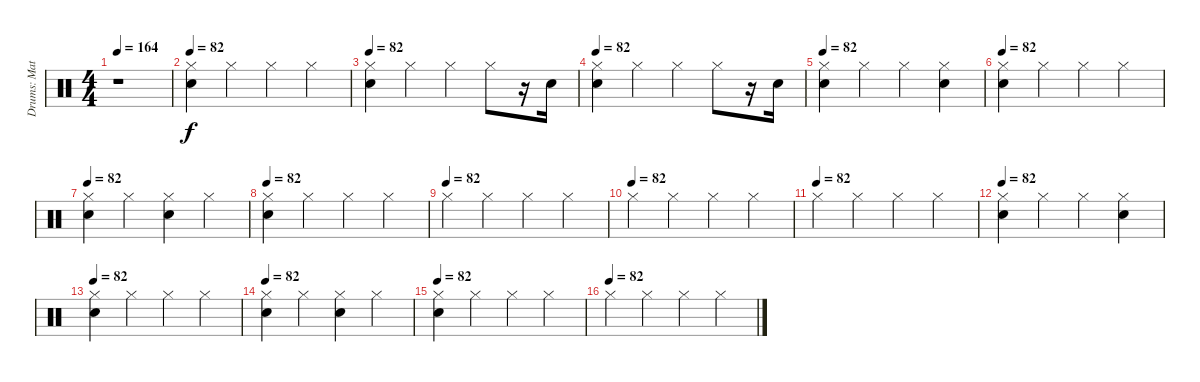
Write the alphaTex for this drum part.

\track ("Drums: Matt" "Drums: Mat") {instrument percussion}
\staff {score}
\articulation defaults
\ts (4 4)
\tempo 164
\tempo 82
\tempo 164
\clef neutral
\ks c
r.1{dy f} |
\tempo 82
("Electric Snare (hit)" "Hi-Hat (closed)").4 "Hi-Hat (closed)".4 "Hi-Hat (closed)".4 "Hi-Hat (closed)".4 |
\tempo 82
("Electric Snare (hit)" "Hi-Hat (closed)").4 "Hi-Hat (closed)".4 "Hi-Hat (closed)".4 "Hi-Hat (closed)".8 r.16 "Snare (hit)".16 |
\tempo 82
("Electric Snare (hit)" "Hi-Hat (closed)").4 "Hi-Hat (closed)".4 "Hi-Hat (closed)".4 "Hi-Hat (closed)".8 r.16 "Snare (hit)".16 |
\tempo 82
("Electric Snare (hit)" "Hi-Hat (closed)").4 "Hi-Hat (closed)".4 "Hi-Hat (closed)".4 ("Snare (hit)" "Hi-Hat (closed)").4 |
\tempo 82
("Electric Snare (hit)" "Hi-Hat (closed)").4 "Hi-Hat (closed)".4 "Hi-Hat (closed)".4 "Hi-Hat (closed)".4 |
\tempo 82
("Electric Snare (hit)" "Hi-Hat (closed)").4 "Hi-Hat (closed)".4 ("Snare (hit)" "Hi-Hat (closed)").4 "Hi-Hat (closed)".4 |
\tempo 82
("Electric Snare (hit)" "Hi-Hat (closed)").4 "Hi-Hat (closed)".4 "Hi-Hat (closed)".4 "Hi-Hat (closed)".4 |
\tempo (82)
"Hi-Hat (closed)".4 "Hi-Hat (closed)".4 "Hi-Hat (closed)".4 "Hi-Hat (closed)".4 |
\tempo (82)
"Hi-Hat (closed)".4 "Hi-Hat (closed)".4 "Hi-Hat (closed)".4 "Hi-Hat (closed)".4 |
\tempo (82)
"Hi-Hat (closed)".4 "Hi-Hat (closed)".4 "Hi-Hat (closed)".4 "Hi-Hat (closed)".4 |
\tempo 82
("Electric Snare (hit)" "Hi-Hat (closed)").4 "Hi-Hat (closed)".4 "Hi-Hat (closed)".4 ("Snare (hit)" "Hi-Hat (closed)").4 |
\tempo 82
("Electric Snare (hit)" "Hi-Hat (closed)").4 "Hi-Hat (closed)".4 "Hi-Hat (closed)".4 "Hi-Hat (closed)".4 |
\tempo 82
("Electric Snare (hit)" "Hi-Hat (closed)").4 "Hi-Hat (closed)".4 ("Snare (hit)" "Hi-Hat (closed)").4 "Hi-Hat (closed)".4 |
\tempo 82
("Electric Snare (hit)" "Hi-Hat (closed)").4 "Hi-Hat (closed)".4 "Hi-Hat (closed)".4 "Hi-Hat (closed)".4 |
\tempo (82)
"Hi-Hat (closed)".4 "Hi-Hat (closed)".4 "Hi-Hat (closed)".4 "Hi-Hat (closed)".4
